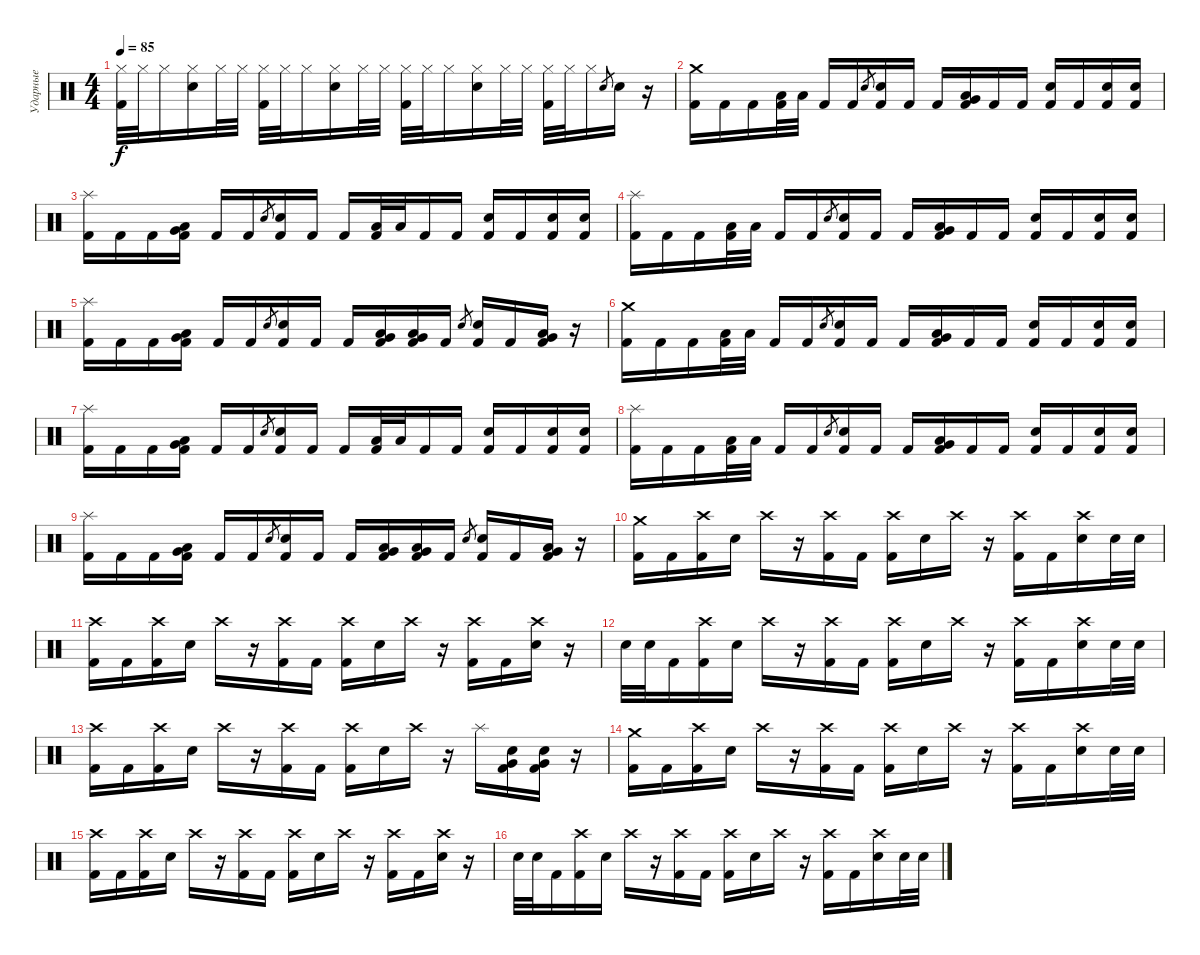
\track ("Ударные" "Ударные") {instrument percussion}
\staff {score}
\articulation defaults
\ts (4 4)
\tempo 85
\clef neutral
\ks c
("Hi-Hat (closed)" "Kick (hit) 2").32{dy f} "Hi-Hat (closed)".32 "Hi-Hat (closed)".16 ("Hi-Hat (closed)" "Electric Snare (hit)").16 "Hi-Hat (closed)".32 "Hi-Hat (closed)".32 ("Hi-Hat (closed)" "Kick (hit) 2").32 "Hi-Hat (closed)".32 "Hi-Hat (closed)".16 ("Hi-Hat (closed)" "Electric Snare (hit)").16 "Hi-Hat (closed)".32 "Hi-Hat (closed)".32 ("Hi-Hat (closed)" "Kick (hit) 2").32 "Hi-Hat (closed)".32 "Hi-Hat (closed)".16 ("Hi-Hat (closed)" "Electric Snare (hit)").16 "Hi-Hat (closed)".32 "Hi-Hat (closed)".32 ("Hi-Hat (closed)" "Kick (hit) 2").32 "Hi-Hat (closed)".32 "Hi-Hat (closed)".16 "Electric Snare (hit)".8{gr} "Electric Snare (hit)".16 r.16 |
("Crash medium (hit)" "Kick (hit) 2").16 "Kick (hit) 2".16 "Kick (hit) 2".16 ("Low Tom (hit)" "Kick (hit) 2").32 "Low Tom (hit)".32 "Kick (hit) 2".16 "Kick (hit) 2".16 "Electric Snare (hit)".8{gr} ("Electric Snare (hit)" "Kick (hit) 2").16 "Kick (hit) 2".16 "Kick (hit) 2".16 ("Very Low Tom (hit)" "Low Tom (hit)" "Kick (hit) 2").16 "Kick (hit) 2".16 "Kick (hit) 2".16 ("Electric Snare (hit)" "Kick (hit) 2").16 "Kick (hit) 2".16 ("Electric Snare (hit)" "Kick (hit) 2").16 ("Electric Snare (hit)" "Kick (hit) 2").16 |
("Splash (hit)" "Kick (hit) 2").16 "Kick (hit) 2".16 "Kick (hit) 2".16 ("Very Low Tom (hit)" "Low Tom (hit)" "Kick (hit) 2").16 "Kick (hit) 2".16 "Kick (hit) 2".16 "Electric Snare (hit)".8{gr} ("Electric Snare (hit)" "Kick (hit) 2").16 "Kick (hit) 2".16 "Kick (hit) 2".16 ("Low Tom (hit)" "Kick (hit) 2").32 "Low Tom (hit)".32 "Kick (hit) 2".16 "Kick (hit) 2".16 ("Electric Snare (hit)" "Kick (hit) 2").16 "Kick (hit) 2".16 ("Electric Snare (hit)" "Kick (hit) 2").16 ("Electric Snare (hit)" "Kick (hit) 2").16 |
("Splash (hit)" "Kick (hit) 2").16 "Kick (hit) 2".16 "Kick (hit) 2".16 ("Low Tom (hit)" "Kick (hit) 2").32 "Low Tom (hit)".32 "Kick (hit) 2".16 "Kick (hit) 2".16 "Electric Snare (hit)".8{gr} ("Electric Snare (hit)" "Kick (hit) 2").16 "Kick (hit) 2".16 "Kick (hit) 2".16 ("Very Low Tom (hit)" "Low Tom (hit)" "Kick (hit) 2").16 "Kick (hit) 2".16 "Kick (hit) 2".16 ("Electric Snare (hit)" "Kick (hit) 2").16 "Kick (hit) 2".16 ("Electric Snare (hit)" "Kick (hit) 2").16 ("Electric Snare (hit)" "Kick (hit) 2").16 |
("Splash (hit)" "Kick (hit) 2").16 "Kick (hit) 2".16 "Kick (hit) 2".16 ("Very Low Tom (hit)" "Low Tom (hit)" "Kick (hit) 2").16 "Kick (hit) 2".16 "Kick (hit) 2".16 "Electric Snare (hit)".8{gr} ("Electric Snare (hit)" "Kick (hit) 2").16 "Kick (hit) 2".16 "Kick (hit) 2".16 ("Very Low Tom (hit)" "Low Tom (hit)" "Kick (hit) 2").16 ("Very Low Tom (hit)" "Low Tom (hit)" "Kick (hit) 2").16 "Kick (hit) 2".16 "Electric Snare (hit)".8{gr} ("Electric Snare (hit)" "Kick (hit) 2").16 "Kick (hit) 2".16 ("Very Low Tom (hit)" "Low Tom (hit)" "Kick (hit) 2").16 r.16 |
("Crash medium (hit)" "Kick (hit) 2").16 "Kick (hit) 2".16 "Kick (hit) 2".16 ("Low Tom (hit)" "Kick (hit) 2").32 "Low Tom (hit)".32 "Kick (hit) 2".16 "Kick (hit) 2".16 "Electric Snare (hit)".8{gr} ("Electric Snare (hit)" "Kick (hit) 2").16 "Kick (hit) 2".16 "Kick (hit) 2".16 ("Very Low Tom (hit)" "Low Tom (hit)" "Kick (hit) 2").16 "Kick (hit) 2".16 "Kick (hit) 2".16 ("Electric Snare (hit)" "Kick (hit) 2").16 "Kick (hit) 2".16 ("Electric Snare (hit)" "Kick (hit) 2").16 ("Electric Snare (hit)" "Kick (hit) 2").16 |
("Splash (hit)" "Kick (hit) 2").16 "Kick (hit) 2".16 "Kick (hit) 2".16 ("Very Low Tom (hit)" "Low Tom (hit)" "Kick (hit) 2").16 "Kick (hit) 2".16 "Kick (hit) 2".16 "Electric Snare (hit)".8{gr} ("Electric Snare (hit)" "Kick (hit) 2").16 "Kick (hit) 2".16 "Kick (hit) 2".16 ("Low Tom (hit)" "Kick (hit) 2").32 "Low Tom (hit)".32 "Kick (hit) 2".16 "Kick (hit) 2".16 ("Electric Snare (hit)" "Kick (hit) 2").16 "Kick (hit) 2".16 ("Electric Snare (hit)" "Kick (hit) 2").16 ("Electric Snare (hit)" "Kick (hit) 2").16 |
("Splash (hit)" "Kick (hit) 2").16 "Kick (hit) 2".16 "Kick (hit) 2".16 ("Low Tom (hit)" "Kick (hit) 2").32 "Low Tom (hit)".32 "Kick (hit) 2".16 "Kick (hit) 2".16 "Electric Snare (hit)".8{gr} ("Electric Snare (hit)" "Kick (hit) 2").16 "Kick (hit) 2".16 "Kick (hit) 2".16 ("Very Low Tom (hit)" "Low Tom (hit)" "Kick (hit) 2").16 "Kick (hit) 2".16 "Kick (hit) 2".16 ("Electric Snare (hit)" "Kick (hit) 2").16 "Kick (hit) 2".16 ("Electric Snare (hit)" "Kick (hit) 2").16 ("Electric Snare (hit)" "Kick (hit) 2").16 |
("Splash (hit)" "Kick (hit) 2").16 "Kick (hit) 2".16 "Kick (hit) 2".16 ("Very Low Tom (hit)" "Low Tom (hit)" "Kick (hit) 2").16 "Kick (hit) 2".16 "Kick (hit) 2".16 "Electric Snare (hit)".8{gr} ("Electric Snare (hit)" "Kick (hit) 2").16 "Kick (hit) 2".16 "Kick (hit) 2".16 ("Very Low Tom (hit)" "Low Tom (hit)" "Kick (hit) 2").16 ("Very Low Tom (hit)" "Low Tom (hit)" "Kick (hit) 2").16 "Kick (hit) 2".16 "Electric Snare (hit)".8{gr} ("Electric Snare (hit)" "Kick (hit) 2").16 "Kick (hit) 2".16 ("Very Low Tom (hit)" "Low Tom (hit)" "Kick (hit) 2").16 r.16 |
("Crash medium (hit)" "Kick (hit) 2").16 "Kick (hit) 2".16 ("Crash high (hit)" "Kick (hit) 2").16 "Electric Snare (hit)".16 "Crash high (hit)".16 r.16 ("Crash high (hit)" "Kick (hit) 2").16 "Kick (hit) 2".16 ("Crash high (hit)" "Kick (hit) 2").16 "Electric Snare (hit)".16 "Crash high (hit)".16 r.16 ("Crash high (hit)" "Kick (hit) 2").16 "Kick (hit) 2".16 ("Crash high (hit)" "Electric Snare (hit)").16 "Electric Snare (hit)".32 "Electric Snare (hit)".32 |
("Crash high (hit)" "Kick (hit) 2").16 "Kick (hit) 2".16 ("Crash high (hit)" "Kick (hit) 2").16 "Electric Snare (hit)".16 "Crash high (hit)".16 r.16 ("Crash high (hit)" "Kick (hit) 2").16 "Kick (hit) 2".16 ("Crash high (hit)" "Kick (hit) 2").16 "Electric Snare (hit)".16 "Crash high (hit)".16 r.16 ("Crash high (hit)" "Kick (hit) 2").16 "Kick (hit) 2".16 ("Crash high (hit)" "Electric Snare (hit)").16 r.16 |
"Electric Snare (hit)".32 "Electric Snare (hit)".32 "Kick (hit) 2".16 ("Crash high (hit)" "Kick (hit) 2").16 "Electric Snare (hit)".16 "Crash high (hit)".16 r.16 ("Crash high (hit)" "Kick (hit) 2").16 "Kick (hit) 2".16 ("Crash high (hit)" "Kick (hit) 2").16 "Electric Snare (hit)".16 "Crash high (hit)".16 r.16 ("Crash high (hit)" "Kick (hit) 2").16 "Kick (hit) 2".16 ("Crash high (hit)" "Electric Snare (hit)").16 "Electric Snare (hit)".32 "Electric Snare (hit)".32 |
("Crash high (hit)" "Kick (hit) 2").16 "Kick (hit) 2".16 ("Crash high (hit)" "Kick (hit) 2").16 "Electric Snare (hit)".16 "Crash high (hit)".16 r.16 ("Crash high (hit)" "Kick (hit) 2").16 "Kick (hit) 2".16 ("Crash high (hit)" "Kick (hit) 2").16 "Electric Snare (hit)".16 "Crash high (hit)".16 r.16 "Splash (hit)".16 ("Very Low Tom (hit)" "Electric Snare (hit)" "Kick (hit) 2").16 ("Very Low Tom (hit)" "Electric Snare (hit)" "Kick (hit) 2").16 r.16 |
("Crash medium (hit)" "Kick (hit) 2").16 "Kick (hit) 2".16 ("Crash high (hit)" "Kick (hit) 2").16 "Electric Snare (hit)".16 "Crash high (hit)".16 r.16 ("Crash high (hit)" "Kick (hit) 2").16 "Kick (hit) 2".16 ("Crash high (hit)" "Kick (hit) 2").16 "Electric Snare (hit)".16 "Crash high (hit)".16 r.16 ("Crash high (hit)" "Kick (hit) 2").16 "Kick (hit) 2".16 ("Crash high (hit)" "Electric Snare (hit)").16 "Electric Snare (hit)".32 "Electric Snare (hit)".32 |
("Crash high (hit)" "Kick (hit) 2").16 "Kick (hit) 2".16 ("Crash high (hit)" "Kick (hit) 2").16 "Electric Snare (hit)".16 "Crash high (hit)".16 r.16 ("Crash high (hit)" "Kick (hit) 2").16 "Kick (hit) 2".16 ("Crash high (hit)" "Kick (hit) 2").16 "Electric Snare (hit)".16 "Crash high (hit)".16 r.16 ("Crash high (hit)" "Kick (hit) 2").16 "Kick (hit) 2".16 ("Crash high (hit)" "Electric Snare (hit)").16 r.16 |
"Electric Snare (hit)".32 "Electric Snare (hit)".32 "Kick (hit) 2".16 ("Crash high (hit)" "Kick (hit) 2").16 "Electric Snare (hit)".16 "Crash high (hit)".16 r.16 ("Crash high (hit)" "Kick (hit) 2").16 "Kick (hit) 2".16 ("Crash high (hit)" "Kick (hit) 2").16 "Electric Snare (hit)".16 "Crash high (hit)".16 r.16 ("Crash high (hit)" "Kick (hit) 2").16 "Kick (hit) 2".16 ("Crash high (hit)" "Electric Snare (hit)").16 "Electric Snare (hit)".32 "Electric Snare (hit)".32
